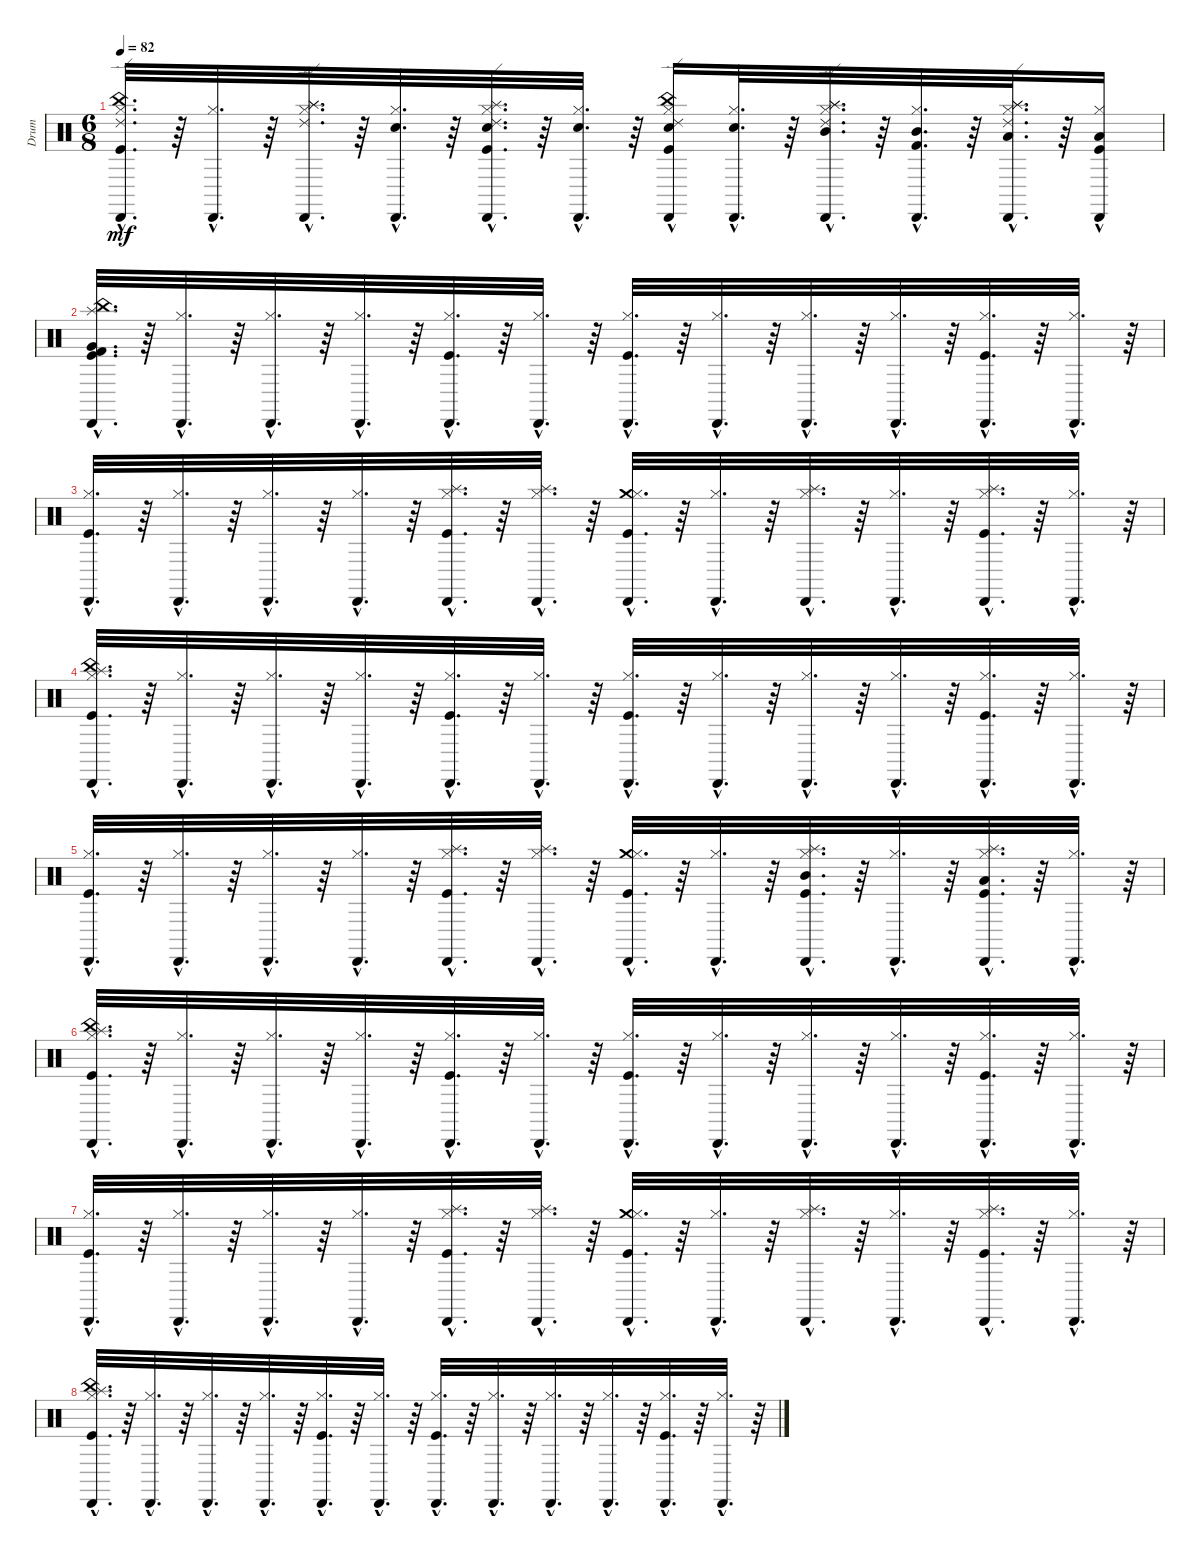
\track ("Drum" "Drum") {instrument percussion}
\staff {score}
\articulation defaults
\ts (6 8)
\tempo 82
\clef neutral
\ks c
("Cabasa (hit)"{hac} "Ride (edge) 2"{hac} "China (hit)"{hac} "Kick (hit)"{hac} "Hi-Hat (closed)"{hac}).32{d dy mf} r.64 ("Cabasa (hit)"{hac} "Hi-Hat (closed)"{hac}).32{d} r.64 ("Cabasa (hit)"{hac} "Ride (edge) 2"{hac} "Splash (hit)"{hac} "Splash (hit)"{hac} "Hi-Hat (closed)"{hac}).32{d} r.64 ("Cabasa (hit)"{hac} "Snare (hit) 2"{hac} "Hi-Hat (closed)"{hac}).32{d} r.64 ("Cabasa (hit)"{hac} "Ride (edge) 2"{hac} "Splash (hit)"{hac} "Snare (hit) 2"{hac} "Hi-Hat (closed)"{hac} "Kick (hit)"{hac}).32{d} r.64 ("Cabasa (hit)"{hac} "Hi-Hat (closed)"{hac} "Snare (hit) 2"{hac}).32{d} r.64 ("Cabasa (hit)"{hac} "Ride (edge) 2"{hac} "China (hit)"{hac} "Snare (hit) 2"{hac} "Kick (hit)" "Hi-Hat (closed)"{hac}).16 ("Cabasa (hit)"{hac} "Snare (hit) 2"{hac} "Hi-Hat (closed)"{hac}).32{d} r.64 ("Cabasa (hit)"{hac} "Ride (edge) 2"{hac} "Splash (hit)"{hac} "Mid Tom (hit)"{hac} "Splash (hit)"{hac} "Hi-Hat (closed)"{hac}).32{d} r.64 ("Cabasa (hit)"{hac} "Mid Tom (hit)"{hac} "Kick (hit) 2"{hac} "Hi-Hat (closed)"{hac}).32{d} r.64 ("Cabasa (hit)"{hac} "Ride (edge) 2"{hac} "Splash (hit)"{hac} "Low Tom (hit)"{hac} "Splash (hit)"{hac} "Hi-Hat (closed)"{hac}).32{d} r.64 ("Cabasa (hit)"{hac} "Low Tom (hit)"{hac} "Kick (hit)"{hac} "Hi-Hat (closed)"{hac}).16 |
("Splash (hit)"{hac} "Cabasa (hit)"{hac} "Kick (hit) 2"{hac} "Very Low Tom (hit)"{hac} "China (hit)"{hac} "Kick (hit)"{hac}).32{d} r.64 ("Cabasa (hit)"{hac} "Hi-Hat (closed)"{hac}).32{d} r.64 ("Cabasa (hit)"{hac} "Hi-Hat (closed)"{hac}).32{d} r.64 ("Cabasa (hit)"{hac} "Hi-Hat (closed)"{hac}).32{d} r.64 ("Cabasa (hit)"{hac} "Kick (hit)"{hac} "Hi-Hat (closed)"{hac}).32{d} r.64 ("Cabasa (hit)"{hac} "Hi-Hat (closed)"{hac}).32{d} r.64 ("Cabasa (hit)"{hac} "Kick (hit)"{hac} "Hi-Hat (closed)"{hac}).32{d} r.64 ("Cabasa (hit)"{hac} "Hi-Hat (closed)"{hac}).32{d} r.64 ("Cabasa (hit)"{hac} "Hi-Hat (closed)"{hac}).32{d} r.64 ("Cabasa (hit)"{hac} "Hi-Hat (closed)"{hac}).32{d} r.64 ("Cabasa (hit)"{hac} "Kick (hit)"{hac} "Hi-Hat (closed)"{hac}).32{d} r.64 ("Cabasa (hit)"{hac} "Hi-Hat (closed)"{hac}).32{d} r.64 |
("Hi-Hat (closed)"{hac} "Kick (hit)"{hac} "Cabasa (hit)"{hac}).32{d} r.64 ("Hi-Hat (closed)"{hac} "Cabasa (hit)"{hac}).32{d} r.64 ("Hi-Hat (closed)"{hac} "Cabasa (hit)"{hac}).32{d} r.64 ("Hi-Hat (closed)"{hac} "Cabasa (hit)"{hac}).32{d} r.64 ("Splash (hit)"{hac} "Hi-Hat (closed)"{hac} "Kick (hit)"{hac} "Cabasa (hit)"{hac}).32{d} r.64 ("Splash (hit)"{hac} "Hi-Hat (closed)"{hac} "Cabasa (hit)"{hac}).32{d} r.64 ("Crash medium (hit)"{hac} "Hi-Hat (closed)"{hac} "Kick (hit)"{hac} "Cabasa (hit)"{hac}).32{d} r.64 ("Hi-Hat (closed)"{hac} "Cabasa (hit)"{hac}).32{d} r.64 ("Splash (hit)"{hac} "Hi-Hat (closed)"{hac} "Cabasa (hit)"{hac}).32{d} r.64 ("Hi-Hat (closed)"{hac} "Cabasa (hit)"{hac}).32{d} r.64 ("Splash (hit)"{hac} "Hi-Hat (closed)"{hac} "Kick (hit)"{hac} "Cabasa (hit)"{hac}).32{d} r.64 ("Hi-Hat (closed)"{hac} "Cabasa (hit)"{hac}).32{d} r.64 |
("China (hit)"{hac} "Kick (hit)"{hac} "Hi-Hat (closed)"{hac} "Splash (hit)"{hac} "Cabasa (hit)"{hac}).32{d} r.64 ("Hi-Hat (closed)"{hac} "Cabasa (hit)"{hac}).32{d} r.64 ("Hi-Hat (closed)"{hac} "Cabasa (hit)"{hac}).32{d} r.64 ("Hi-Hat (closed)"{hac} "Cabasa (hit)"{hac}).32{d} r.64 ("Kick (hit)"{hac} "Hi-Hat (closed)"{hac} "Cabasa (hit)"{hac}).32{d} r.64 ("Hi-Hat (closed)"{hac} "Cabasa (hit)"{hac}).32{d} r.64 ("Kick (hit)"{hac} "Hi-Hat (closed)"{hac} "Cabasa (hit)"{hac}).32{d} r.64 ("Hi-Hat (closed)"{hac} "Cabasa (hit)"{hac}).32{d} r.64 ("Hi-Hat (closed)"{hac} "Cabasa (hit)"{hac}).32{d} r.64 ("Hi-Hat (closed)"{hac} "Cabasa (hit)"{hac}).32{d} r.64 ("Kick (hit)"{hac} "Hi-Hat (closed)"{hac} "Cabasa (hit)"{hac}).32{d} r.64 ("Hi-Hat (closed)"{hac} "Cabasa (hit)"{hac}).32{d} r.64 |
("Hi-Hat (closed)"{hac} "Kick (hit)"{hac} "Cabasa (hit)"{hac}).32{d} r.64 ("Hi-Hat (closed)"{hac} "Cabasa (hit)"{hac}).32{d} r.64 ("Hi-Hat (closed)"{hac} "Cabasa (hit)"{hac}).32{d} r.64 ("Hi-Hat (closed)"{hac} "Cabasa (hit)"{hac}).32{d} r.64 ("Splash (hit)"{hac} "Hi-Hat (closed)"{hac} "Kick (hit)"{hac} "Cabasa (hit)"{hac}).32{d} r.64 ("Splash (hit)"{hac} "Hi-Hat (closed)"{hac} "Cabasa (hit)"{hac}).32{d} r.64 ("Crash medium (hit)"{hac} "Hi-Hat (closed)"{hac} "Kick (hit)"{hac} "Cabasa (hit)"{hac}).32{d} r.64 ("Hi-Hat (closed)"{hac} "Cabasa (hit)"{hac}).32{d} r.64 ("Mid Tom (hit)"{hac} "Kick (hit)"{hac} "Splash (hit)"{hac} "Hi-Hat (closed)"{hac} "Cabasa (hit)"{hac}).32{d} r.64 ("Hi-Hat (closed)"{hac} "Cabasa (hit)"{hac}).32{d} r.64 ("Low Tom (hit)"{hac} "Splash (hit)"{hac} "Hi-Hat (closed)"{hac} "Kick (hit)"{hac} "Cabasa (hit)"{hac}).32{d} r.64 ("Hi-Hat (closed)"{hac} "Cabasa (hit)"{hac}).32{d} r.64 |
("China (hit)"{hac} "Kick (hit)"{hac} "Hi-Hat (closed)"{hac} "Splash (hit)"{hac} "Cabasa (hit)"{hac}).32{d} r.64 ("Hi-Hat (closed)"{hac} "Cabasa (hit)"{hac}).32{d} r.64 ("Hi-Hat (closed)"{hac} "Cabasa (hit)"{hac}).32{d} r.64 ("Hi-Hat (closed)"{hac} "Cabasa (hit)"{hac}).32{d} r.64 ("Kick (hit)"{hac} "Hi-Hat (closed)"{hac} "Cabasa (hit)"{hac}).32{d} r.64 ("Hi-Hat (closed)"{hac} "Cabasa (hit)"{hac}).32{d} r.64 ("Kick (hit)"{hac} "Hi-Hat (closed)"{hac} "Cabasa (hit)"{hac}).32{d} r.64 ("Hi-Hat (closed)"{hac} "Cabasa (hit)"{hac}).32{d} r.64 ("Hi-Hat (closed)"{hac} "Cabasa (hit)"{hac}).32{d} r.64 ("Hi-Hat (closed)"{hac} "Cabasa (hit)"{hac}).32{d} r.64 ("Kick (hit)"{hac} "Hi-Hat (closed)"{hac} "Cabasa (hit)"{hac}).32{d} r.64 ("Hi-Hat (closed)"{hac} "Cabasa (hit)"{hac}).32{d} r.64 |
("Hi-Hat (closed)"{hac} "Kick (hit)"{hac} "Cabasa (hit)"{hac}).32{d} r.64 ("Hi-Hat (closed)"{hac} "Cabasa (hit)"{hac}).32{d} r.64 ("Hi-Hat (closed)"{hac} "Cabasa (hit)"{hac}).32{d} r.64 ("Hi-Hat (closed)"{hac} "Cabasa (hit)"{hac}).32{d} r.64 ("Splash (hit)"{hac} "Hi-Hat (closed)"{hac} "Kick (hit)"{hac} "Cabasa (hit)"{hac}).32{d} r.64 ("Splash (hit)"{hac} "Hi-Hat (closed)"{hac} "Cabasa (hit)"{hac}).32{d} r.64 ("Crash medium (hit)"{hac} "Hi-Hat (closed)"{hac} "Kick (hit)"{hac} "Cabasa (hit)"{hac}).32{d} r.64 ("Hi-Hat (closed)"{hac} "Cabasa (hit)"{hac}).32{d} r.64 ("Splash (hit)"{hac} "Hi-Hat (closed)"{hac} "Cabasa (hit)"{hac}).32{d} r.64 ("Hi-Hat (closed)"{hac} "Cabasa (hit)"{hac}).32{d} r.64 ("Splash (hit)"{hac} "Hi-Hat (closed)"{hac} "Kick (hit)"{hac} "Cabasa (hit)"{hac}).32{d} r.64 ("Hi-Hat (closed)"{hac} "Cabasa (hit)"{hac}).32{d} r.64 |
("China (hit)"{hac} "Kick (hit)"{hac} "Hi-Hat (closed)"{hac} "Splash (hit)"{hac} "Cabasa (hit)"{hac}).32{d} r.64 ("Hi-Hat (closed)"{hac} "Cabasa (hit)"{hac}).32{d} r.64 ("Hi-Hat (closed)"{hac} "Cabasa (hit)"{hac}).32{d} r.64 ("Hi-Hat (closed)"{hac} "Cabasa (hit)"{hac}).32{d} r.64 ("Kick (hit)"{hac} "Hi-Hat (closed)"{hac} "Cabasa (hit)"{hac}).32{d} r.64 ("Hi-Hat (closed)"{hac} "Cabasa (hit)"{hac}).32{d} r.64 ("Kick (hit)"{hac} "Hi-Hat (closed)"{hac} "Cabasa (hit)"{hac}).32{d} r.64 ("Hi-Hat (closed)"{hac} "Cabasa (hit)"{hac}).32{d} r.64 ("Hi-Hat (closed)"{hac} "Cabasa (hit)"{hac}).32{d} r.64 ("Hi-Hat (closed)"{hac} "Cabasa (hit)"{hac}).32{d} r.64 ("Kick (hit)"{hac} "Hi-Hat (closed)"{hac} "Cabasa (hit)"{hac}).32{d} r.64 ("Hi-Hat (closed)"{hac} "Cabasa (hit)"{hac}).32{d} r.64
